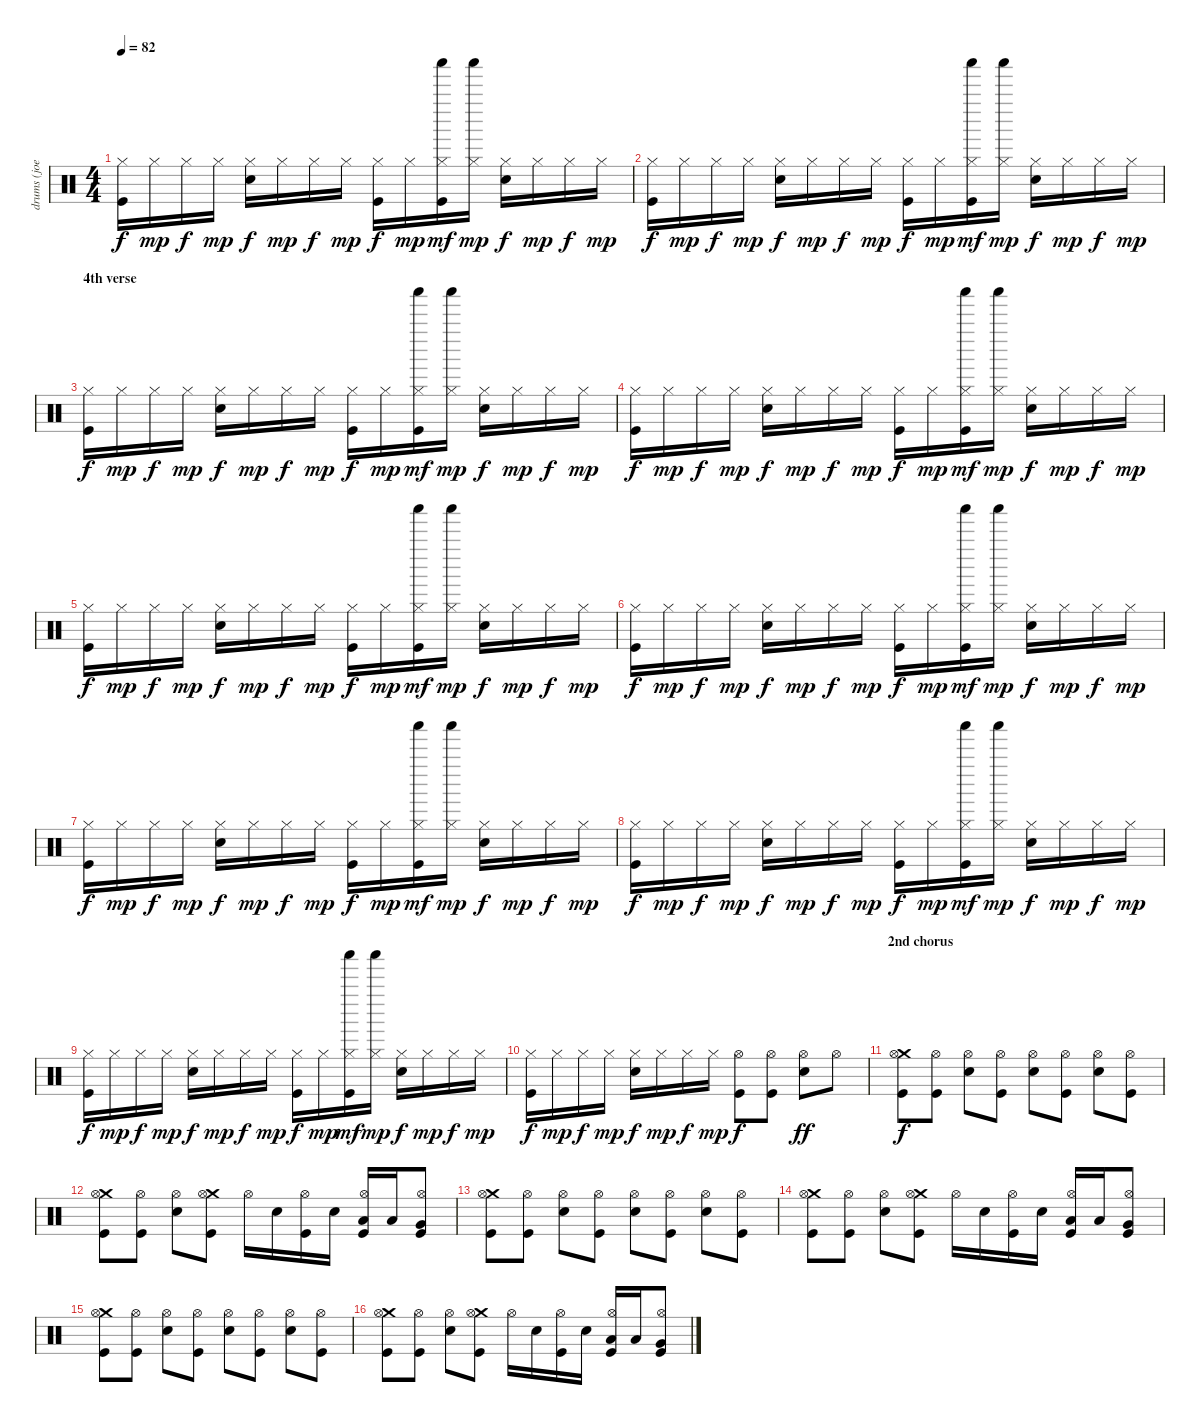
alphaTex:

\track ("drums (joey castillo)" "drums (joe") {instrument percussion}
\staff {score}
\articulation defaults
\ts (4 4)
\tempo 82
\clef neutral
\ks c
("Kick (hit)" "Hi-Hat (closed)").16{dy f} "Hi-Hat (closed)".16{dy mp} "Hi-Hat (closed)".16{dy f} "Hi-Hat (closed)".16{dy mp} ("Electric Snare (hit)" "Hi-Hat (closed)").16{dy f} "Hi-Hat (closed)".16{dy mp} "Hi-Hat (closed)".16{dy f} "Hi-Hat (closed)".16{dy mp} ("Kick (hit)" "Hi-Hat (closed)").16{dy f} "Hi-Hat (closed)".16{dy mp} ("Shaker (hit)" "Kick (hit)" "Hi-Hat (closed)").16{dy mf} ("Shaker (hit)" "Hi-Hat (closed)").16{dy mp} ("Electric Snare (hit)" "Hi-Hat (closed)").16{dy f} "Hi-Hat (closed)".16{dy mp} "Hi-Hat (closed)".16{dy f} "Hi-Hat (closed)".16{dy mp} |
("Kick (hit)" "Hi-Hat (closed)").16{dy f} "Hi-Hat (closed)".16{dy mp} "Hi-Hat (closed)".16{dy f} "Hi-Hat (closed)".16{dy mp} ("Electric Snare (hit)" "Hi-Hat (closed)").16{dy f} "Hi-Hat (closed)".16{dy mp} "Hi-Hat (closed)".16{dy f} "Hi-Hat (closed)".16{dy mp} ("Kick (hit)" "Hi-Hat (closed)").16{dy f} "Hi-Hat (closed)".16{dy mp} ("Shaker (hit)" "Kick (hit)" "Hi-Hat (closed)").16{dy mf} ("Shaker (hit)" "Hi-Hat (closed)").16{dy mp} ("Electric Snare (hit)" "Hi-Hat (closed)").16{dy f} "Hi-Hat (closed)".16{dy mp} "Hi-Hat (closed)".16{dy f} "Hi-Hat (closed)".16{dy mp} |
\section ("" "4th verse")
("Kick (hit)" "Hi-Hat (closed)").16{dy f} "Hi-Hat (closed)".16{dy mp} "Hi-Hat (closed)".16{dy f} "Hi-Hat (closed)".16{dy mp} ("Electric Snare (hit)" "Hi-Hat (closed)").16{dy f} "Hi-Hat (closed)".16{dy mp} "Hi-Hat (closed)".16{dy f} "Hi-Hat (closed)".16{dy mp} ("Kick (hit)" "Hi-Hat (closed)").16{dy f} "Hi-Hat (closed)".16{dy mp} ("Shaker (hit)" "Kick (hit)" "Hi-Hat (closed)").16{dy mf} ("Shaker (hit)" "Hi-Hat (closed)").16{dy mp} ("Electric Snare (hit)" "Hi-Hat (closed)").16{dy f} "Hi-Hat (closed)".16{dy mp} "Hi-Hat (closed)".16{dy f} "Hi-Hat (closed)".16{dy mp} |
("Kick (hit)" "Hi-Hat (closed)").16{dy f} "Hi-Hat (closed)".16{dy mp} "Hi-Hat (closed)".16{dy f} "Hi-Hat (closed)".16{dy mp} ("Electric Snare (hit)" "Hi-Hat (closed)").16{dy f} "Hi-Hat (closed)".16{dy mp} "Hi-Hat (closed)".16{dy f} "Hi-Hat (closed)".16{dy mp} ("Kick (hit)" "Hi-Hat (closed)").16{dy f} "Hi-Hat (closed)".16{dy mp} ("Shaker (hit)" "Kick (hit)" "Hi-Hat (closed)").16{dy mf} ("Shaker (hit)" "Hi-Hat (closed)").16{dy mp} ("Electric Snare (hit)" "Hi-Hat (closed)").16{dy f} "Hi-Hat (closed)".16{dy mp} "Hi-Hat (closed)".16{dy f} "Hi-Hat (closed)".16{dy mp} |
("Kick (hit)" "Hi-Hat (closed)").16{dy f} "Hi-Hat (closed)".16{dy mp} "Hi-Hat (closed)".16{dy f} "Hi-Hat (closed)".16{dy mp} ("Electric Snare (hit)" "Hi-Hat (closed)").16{dy f} "Hi-Hat (closed)".16{dy mp} "Hi-Hat (closed)".16{dy f} "Hi-Hat (closed)".16{dy mp} ("Kick (hit)" "Hi-Hat (closed)").16{dy f} "Hi-Hat (closed)".16{dy mp} ("Shaker (hit)" "Kick (hit)" "Hi-Hat (closed)").16{dy mf} ("Shaker (hit)" "Hi-Hat (closed)").16{dy mp} ("Electric Snare (hit)" "Hi-Hat (closed)").16{dy f} "Hi-Hat (closed)".16{dy mp} "Hi-Hat (closed)".16{dy f} "Hi-Hat (closed)".16{dy mp} |
("Kick (hit)" "Hi-Hat (closed)").16{dy f} "Hi-Hat (closed)".16{dy mp} "Hi-Hat (closed)".16{dy f} "Hi-Hat (closed)".16{dy mp} ("Electric Snare (hit)" "Hi-Hat (closed)").16{dy f} "Hi-Hat (closed)".16{dy mp} "Hi-Hat (closed)".16{dy f} "Hi-Hat (closed)".16{dy mp} ("Kick (hit)" "Hi-Hat (closed)").16{dy f} "Hi-Hat (closed)".16{dy mp} ("Shaker (hit)" "Kick (hit)" "Hi-Hat (closed)").16{dy mf} ("Shaker (hit)" "Hi-Hat (closed)").16{dy mp} ("Electric Snare (hit)" "Hi-Hat (closed)").16{dy f} "Hi-Hat (closed)".16{dy mp} "Hi-Hat (closed)".16{dy f} "Hi-Hat (closed)".16{dy mp} |
("Kick (hit)" "Hi-Hat (closed)").16{dy f} "Hi-Hat (closed)".16{dy mp} "Hi-Hat (closed)".16{dy f} "Hi-Hat (closed)".16{dy mp} ("Electric Snare (hit)" "Hi-Hat (closed)").16{dy f} "Hi-Hat (closed)".16{dy mp} "Hi-Hat (closed)".16{dy f} "Hi-Hat (closed)".16{dy mp} ("Kick (hit)" "Hi-Hat (closed)").16{dy f} "Hi-Hat (closed)".16{dy mp} ("Shaker (hit)" "Kick (hit)" "Hi-Hat (closed)").16{dy mf} ("Shaker (hit)" "Hi-Hat (closed)").16{dy mp} ("Electric Snare (hit)" "Hi-Hat (closed)").16{dy f} "Hi-Hat (closed)".16{dy mp} "Hi-Hat (closed)".16{dy f} "Hi-Hat (closed)".16{dy mp} |
("Kick (hit)" "Hi-Hat (closed)").16{dy f} "Hi-Hat (closed)".16{dy mp} "Hi-Hat (closed)".16{dy f} "Hi-Hat (closed)".16{dy mp} ("Electric Snare (hit)" "Hi-Hat (closed)").16{dy f} "Hi-Hat (closed)".16{dy mp} "Hi-Hat (closed)".16{dy f} "Hi-Hat (closed)".16{dy mp} ("Kick (hit)" "Hi-Hat (closed)").16{dy f} "Hi-Hat (closed)".16{dy mp} ("Shaker (hit)" "Kick (hit)" "Hi-Hat (closed)").16{dy mf} ("Shaker (hit)" "Hi-Hat (closed)").16{dy mp} ("Electric Snare (hit)" "Hi-Hat (closed)").16{dy f} "Hi-Hat (closed)".16{dy mp} "Hi-Hat (closed)".16{dy f} "Hi-Hat (closed)".16{dy mp} |
("Kick (hit)" "Hi-Hat (closed)").16{dy f} "Hi-Hat (closed)".16{dy mp} "Hi-Hat (closed)".16{dy f} "Hi-Hat (closed)".16{dy mp} ("Electric Snare (hit)" "Hi-Hat (closed)").16{dy f} "Hi-Hat (closed)".16{dy mp} "Hi-Hat (closed)".16{dy f} "Hi-Hat (closed)".16{dy mp} ("Kick (hit)" "Hi-Hat (closed)").16{dy f} "Hi-Hat (closed)".16{dy mp} ("Shaker (hit)" "Kick (hit)" "Hi-Hat (closed)").16{dy mf} ("Shaker (hit)" "Hi-Hat (closed)").16{dy mp} ("Electric Snare (hit)" "Hi-Hat (closed)").16{dy f} "Hi-Hat (closed)".16{dy mp} "Hi-Hat (closed)".16{dy f} "Hi-Hat (closed)".16{dy mp} |
("Kick (hit)" "Hi-Hat (closed)").16{dy f} "Hi-Hat (closed)".16{dy mp} "Hi-Hat (closed)".16{dy f} "Hi-Hat (closed)".16{dy mp} ("Electric Snare (hit)" "Hi-Hat (closed)").16{dy f} "Hi-Hat (closed)".16{dy mp} "Hi-Hat (closed)".16{dy f} "Hi-Hat (closed)".16{dy mp} ("Kick (hit)" "Hi-Hat (open)").8{dy f} ("Kick (hit)" "Hi-Hat (open)").8 ("Electric Snare (hit)" "Hi-Hat (open)").8{dy ff} "Hi-Hat (open)".8 |
\section ("" "2nd chorus")
("Crash medium (hit)" "Kick (hit)" "Hi-Hat (open)").8{dy f} ("Kick (hit)" "Hi-Hat (open)").8 ("Electric Snare (hit)" "Hi-Hat (open)").8 ("Kick (hit)" "Hi-Hat (open)").8 ("Electric Snare (hit)" "Hi-Hat (open)").8 ("Kick (hit)" "Hi-Hat (open)").8 ("Electric Snare (hit)" "Hi-Hat (open)").8 ("Kick (hit)" "Hi-Hat (open)").8 |
("Crash medium (hit)" "Kick (hit)" "Hi-Hat (open)").8 ("Kick (hit)" "Hi-Hat (open)").8 ("Electric Snare (hit)" "Hi-Hat (open)").8 ("Crash medium (hit)" "Kick (hit)" "Hi-Hat (open)").8 "Hi-Hat (open)".16 "Electric Snare (hit)".16 ("Kick (hit)" "Hi-Hat (open)").16 "Electric Snare (hit)".16 ("Low Tom (hit)" "Kick (hit)" "Hi-Hat (open)").16 "Low Tom (hit)".16 ("Very Low Tom (hit)" "Kick (hit)" "Hi-Hat (open)").8 |
("Crash medium (hit)" "Kick (hit)" "Hi-Hat (open)").8 ("Kick (hit)" "Hi-Hat (open)").8 ("Electric Snare (hit)" "Hi-Hat (open)").8 ("Kick (hit)" "Hi-Hat (open)").8 ("Electric Snare (hit)" "Hi-Hat (open)").8 ("Kick (hit)" "Hi-Hat (open)").8 ("Electric Snare (hit)" "Hi-Hat (open)").8 ("Kick (hit)" "Hi-Hat (open)").8 |
("Crash medium (hit)" "Kick (hit)" "Hi-Hat (open)").8 ("Kick (hit)" "Hi-Hat (open)").8 ("Electric Snare (hit)" "Hi-Hat (open)").8 ("Crash medium (hit)" "Kick (hit)" "Hi-Hat (open)").8 "Hi-Hat (open)".16 "Electric Snare (hit)".16 ("Kick (hit)" "Hi-Hat (open)").16 "Electric Snare (hit)".16 ("Low Tom (hit)" "Kick (hit)" "Hi-Hat (open)").16 "Low Tom (hit)".16 ("Very Low Tom (hit)" "Kick (hit)" "Hi-Hat (open)").8 |
("Crash medium (hit)" "Kick (hit)" "Hi-Hat (open)").8 ("Kick (hit)" "Hi-Hat (open)").8 ("Electric Snare (hit)" "Hi-Hat (open)").8 ("Kick (hit)" "Hi-Hat (open)").8 ("Electric Snare (hit)" "Hi-Hat (open)").8 ("Kick (hit)" "Hi-Hat (open)").8 ("Electric Snare (hit)" "Hi-Hat (open)").8 ("Kick (hit)" "Hi-Hat (open)").8 |
("Crash medium (hit)" "Kick (hit)" "Hi-Hat (open)").8 ("Kick (hit)" "Hi-Hat (open)").8 ("Electric Snare (hit)" "Hi-Hat (open)").8 ("Crash medium (hit)" "Kick (hit)" "Hi-Hat (open)").8 "Hi-Hat (open)".16 "Electric Snare (hit)".16 ("Kick (hit)" "Hi-Hat (open)").16 "Electric Snare (hit)".16 ("Low Tom (hit)" "Kick (hit)" "Hi-Hat (open)").16 "Low Tom (hit)".16 ("Very Low Tom (hit)" "Kick (hit)" "Hi-Hat (open)").8
